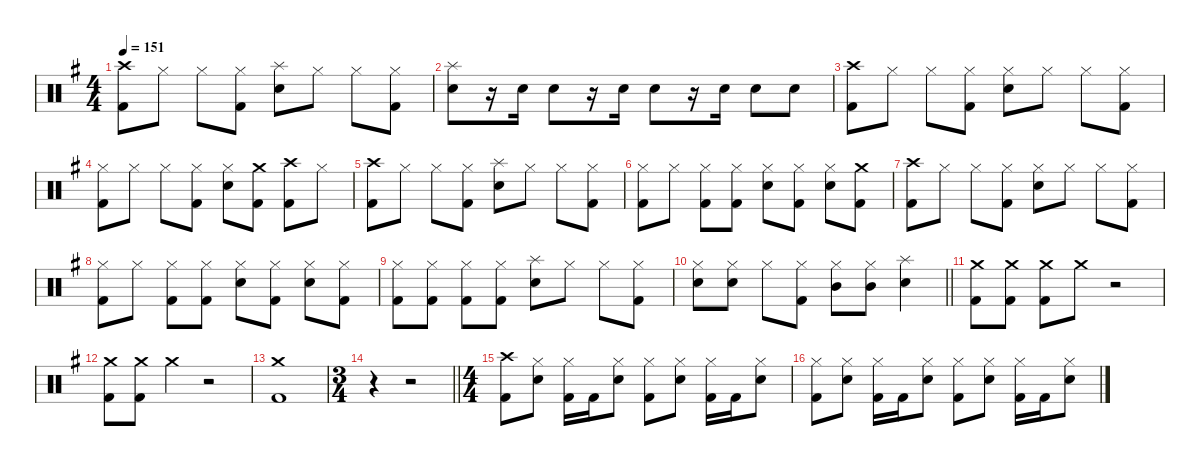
\defaultSystemsLayout 4
\hideDynamics
\bracketExtendMode nobrackets
\singleTrackTrackNamePolicy hidden
\multiTrackTrackNamePolicy hidden
\otherSystemsTrackNameOrientation horizontal
\track ("Lars Ulrich" "drm.") {instrument percussion}
\staff {score}
\articulation defaults
\ts (4 4)
\tempo 151
\clef neutral
\ks eminor
("Crash high (hit)"{acc forcenatural} "Kick (hit) 2"{acc forcenatural}).8{dy f beam Down} "Hi-Hat (closed)"{acc forcenatural}.8{beam Down} "Hi-Hat (closed)"{acc forcenatural}.8{beam Down} ("Hi-Hat (closed)"{acc forcenatural} "Kick (hit) 2"{acc forcenatural}).8{beam Down} ("Splash (hit)"{acc forcenatural} "Snare (hit) 2"{acc forcenatural}).8{beam Down} "Hi-Hat (closed)"{acc forcenatural}.8{beam Down} "Hi-Hat (closed)"{acc forcenatural}.8{beam Down} ("Hi-Hat (closed)"{acc forcenatural} "Kick (hit) 2"{acc forcenatural}).8{beam Down} |
("Splash (hit)"{acc forcenatural} "Snare (hit) 2"{acc forcenatural}).8{beam Down} r.16{beam Down} "Snare (hit) 2"{acc forcenatural}.16{beam Down} "Snare (hit) 2"{acc forcenatural}.8{beam Down} r.16{beam Down} "Snare (hit) 2"{acc forcenatural}.16{beam Down} "Snare (hit) 2"{acc forcenatural}.8{beam Down} r.16{beam Down} "Snare (hit) 2"{acc forcenatural}.16{beam Down} "Snare (hit) 2"{acc forcenatural}.8{beam Down} "Snare (hit) 2"{acc forcenatural}.8{beam Down} |
("Crash high (hit)"{acc forcenatural} "Kick (hit) 2"{acc forcenatural}).8{beam Down} "Hi-Hat (closed)"{acc forcenatural}.8{beam Down} "Hi-Hat (closed)"{acc forcenatural}.8{beam Down} ("Hi-Hat (closed)"{acc forcenatural} "Kick (hit) 2"{acc forcenatural}).8{beam Down} ("Hi-Hat (closed)"{acc forcenatural} "Snare (hit) 2"{acc forcenatural}).8{beam Down} "Hi-Hat (closed)"{acc forcenatural}.8{beam Down} "Hi-Hat (closed)"{acc forcenatural}.8{beam Down} ("Hi-Hat (closed)"{acc forcenatural} "Kick (hit) 2"{acc forcenatural}).8{beam Down} |
("Hi-Hat (closed)"{acc forcenatural} "Kick (hit) 2"{acc forcenatural}).8{beam Down} "Hi-Hat (closed)"{acc forcenatural}.8{beam Down} "Hi-Hat (closed)"{acc forcenatural}.8{beam Down} ("Hi-Hat (closed)"{acc forcenatural} "Kick (hit) 2"{acc forcenatural}).8{beam Down} ("Hi-Hat (closed)"{acc forcenatural} "Snare (hit) 2"{acc forcenatural}).8{beam Down} ("Crash medium (hit)"{acc forcenatural} "Kick (hit) 2"{acc forcenatural}).8{beam Down} ("Crash high (hit)"{acc forcenatural} "Kick (hit) 2"{acc forcenatural}).8{beam Down} "Hi-Hat (closed)"{acc forcenatural}.8{beam Down} |
("Crash high (hit)"{acc forcenatural} "Kick (hit) 2"{acc forcenatural}).8{beam Down} "Hi-Hat (closed)"{acc forcenatural}.8{beam Down} "Hi-Hat (closed)"{acc forcenatural}.8{beam Down} ("Hi-Hat (closed)"{acc forcenatural} "Kick (hit) 2"{acc forcenatural}).8{beam Down} ("Splash (hit)"{acc forcenatural} "Snare (hit) 2"{acc forcenatural}).8{beam Down} "Hi-Hat (closed)"{acc forcenatural}.8{beam Down} "Hi-Hat (closed)"{acc forcenatural}.8{beam Down} ("Hi-Hat (closed)"{acc forcenatural} "Kick (hit) 2"{acc forcenatural}).8{beam Down} |
("Hi-Hat (closed)"{acc forcenatural} "Kick (hit) 2"{acc forcenatural}).8{beam Down} "Hi-Hat (closed)"{acc forcenatural}.8{beam Down} ("Hi-Hat (closed)"{acc forcenatural} "Kick (hit) 2"{acc forcenatural}).8{beam Down} ("Hi-Hat (closed)"{acc forcenatural} "Kick (hit) 2"{acc forcenatural}).8{beam Down} ("Hi-Hat (closed)"{acc forcenatural} "Snare (hit) 2"{acc forcenatural}).8{beam Down} ("Hi-Hat (closed)"{acc forcenatural} "Kick (hit) 2"{acc forcenatural}).8{beam Down} ("Hi-Hat (closed)"{acc forcenatural} "Snare (hit) 2"{acc forcenatural}).8{beam Down} ("Crash medium (hit)"{acc forcenatural} "Kick (hit) 2"{acc forcenatural}).8{beam Down} |
("Crash high (hit)"{acc forcenatural} "Kick (hit) 2"{acc forcenatural}).8{beam Down} "Hi-Hat (closed)"{acc forcenatural}.8{beam Down} "Hi-Hat (closed)"{acc forcenatural}.8{beam Down} ("Hi-Hat (closed)"{acc forcenatural} "Kick (hit) 2"{acc forcenatural}).8{beam Down} ("Hi-Hat (closed)"{acc forcenatural} "Snare (hit) 2"{acc forcenatural}).8{beam Down} "Hi-Hat (closed)"{acc forcenatural}.8{beam Down} "Hi-Hat (closed)"{acc forcenatural}.8{beam Down} ("Hi-Hat (closed)"{acc forcenatural} "Kick (hit) 2"{acc forcenatural}).8{beam Down} |
("Hi-Hat (closed)"{acc forcenatural} "Kick (hit) 2"{acc forcenatural}).8{beam Down} "Hi-Hat (closed)"{acc forcenatural}.8{beam Down} ("Hi-Hat (closed)"{acc forcenatural} "Kick (hit) 2"{acc forcenatural}).8{beam Down} ("Hi-Hat (closed)"{acc forcenatural} "Kick (hit) 2"{acc forcenatural}).8{beam Down} ("Hi-Hat (closed)"{acc forcenatural} "Snare (hit) 2"{acc forcenatural}).8{beam Down} ("Hi-Hat (closed)"{acc forcenatural} "Kick (hit) 2"{acc forcenatural}).8{beam Down} ("Hi-Hat (closed)"{acc forcenatural} "Snare (hit) 2"{acc forcenatural}).8{beam Down} ("Hi-Hat (closed)"{acc forcenatural} "Kick (hit) 2"{acc forcenatural}).8{beam Down} |
("Hi-Hat (closed)"{acc forcenatural} "Kick (hit) 2"{acc forcenatural}).8{beam Down} ("Hi-Hat (closed)"{acc forcenatural} "Kick (hit) 2"{acc forcenatural}).8{beam Down} ("Hi-Hat (closed)"{acc forcenatural} "Kick (hit) 2"{acc forcenatural}).8{beam Down} ("Hi-Hat (closed)"{acc forcenatural} "Kick (hit) 2"{acc forcenatural}).8{beam Down} ("Splash (hit)"{acc forcenatural} "Snare (hit) 2"{acc forcenatural}).8{beam Down} "Hi-Hat (closed)"{acc forcenatural}.8{beam Down} "Hi-Hat (closed)"{acc forcenatural}.8{beam Down} ("Hi-Hat (closed)"{acc forcenatural} "Kick (hit) 2"{acc forcenatural}).8{beam Down} |
\barLineRight lightlight
("Hi-Hat (closed)"{acc forcenatural} "Snare (hit) 2"{acc forcenatural}).8{beam Down} ("Hi-Hat (closed)"{acc forcenatural} "Snare (hit) 2"{acc forcenatural}).8{beam Down} "Hi-Hat (closed)"{acc forcenatural}.8{beam Down} ("Hi-Hat (closed)"{acc forcenatural} "Kick (hit) 2"{acc forcenatural}).8{beam Down} ("Hi-Hat (closed)"{acc forcenatural} "Mid Tom (hit)"{acc forcenatural}).8{beam Down} ("Hi-Hat (closed)"{acc forcenatural} "Mid Tom (hit)"{acc forcenatural}).8{beam Down} ("Splash (hit)"{acc forcenatural} "Snare (hit) 2"{acc forcenatural}).4{beam Down} |
("Crash medium (hit)"{acc forcenatural} "Kick (hit) 2"{acc forcenatural}).8{beam Down} ("Crash medium (hit)"{acc forcenatural} "Kick (hit) 2"{acc forcenatural}).8{beam Down} ("Crash medium (hit)"{acc forcenatural} "Kick (hit) 2"{acc forcenatural}).8{beam Down} "Crash medium (hit)"{acc forcenatural}.8{beam Down} r.2{beam Down} |
("Crash medium (hit)"{acc forcenatural} "Kick (hit) 2"{acc forcenatural}).8{beam Down} ("Crash medium (hit)"{acc forcenatural} "Kick (hit) 2"{acc forcenatural}).8{beam Down} "Crash medium (hit)"{acc forcenatural}.4{beam Down} r.2{beam Down} |
("Crash medium (hit)"{acc forcenatural} "Kick (hit) 2"{acc forcenatural}).1{beam Down} |
\ts (3 4)
\beaming (8 2 2 2)
\barLineRight lightlight
r.4{beam Down} r.2{beam Down} |
\ts (4 4)
\beaming (8 2 2 2 2)
("Crash high (hit)"{acc forcenatural} "Kick (hit) 2"{acc forcenatural}).8{beam Down} ("Hi-Hat (closed)"{acc forcenatural} "Snare (hit) 2"{acc forcenatural}).8{beam Down} ("Hi-Hat (closed)"{acc forcenatural} "Kick (hit) 2"{acc forcenatural}).16{beam Down} "Kick (hit) 2"{acc forcenatural}.16{beam Down} ("Hi-Hat (closed)"{acc forcenatural} "Snare (hit) 2"{acc forcenatural}).8{beam Down} ("Hi-Hat (closed)"{acc forcenatural} "Kick (hit) 2"{acc forcenatural}).8{beam Down} ("Hi-Hat (closed)"{acc forcenatural} "Snare (hit) 2"{acc forcenatural}).8{beam Down} ("Hi-Hat (closed)"{acc forcenatural} "Kick (hit) 2"{acc forcenatural}).16{beam Down} "Kick (hit) 2"{acc forcenatural}.16{beam Down} ("Hi-Hat (closed)"{acc forcenatural} "Snare (hit) 2"{acc forcenatural}).8{beam Down} |
("Hi-Hat (closed)"{acc forcenatural} "Kick (hit) 2"{acc forcenatural}).8{beam Down} ("Hi-Hat (closed)"{acc forcenatural} "Snare (hit) 2"{acc forcenatural}).8{beam Down} ("Hi-Hat (closed)"{acc forcenatural} "Kick (hit) 2"{acc forcenatural}).16{beam Down} "Kick (hit) 2"{acc forcenatural}.16{beam Down} ("Hi-Hat (closed)"{acc forcenatural} "Snare (hit) 2"{acc forcenatural}).8{beam Down} ("Hi-Hat (closed)"{acc forcenatural} "Kick (hit) 2"{acc forcenatural}).8{beam Down} ("Hi-Hat (closed)"{acc forcenatural} "Snare (hit) 2"{acc forcenatural}).8{beam Down} ("Hi-Hat (closed)"{acc forcenatural} "Kick (hit) 2"{acc forcenatural}).16{beam Down} "Kick (hit) 2"{acc forcenatural}.16{beam Down} ("Hi-Hat (closed)"{acc forcenatural} "Snare (hit) 2"{acc forcenatural}).8{beam Down}
